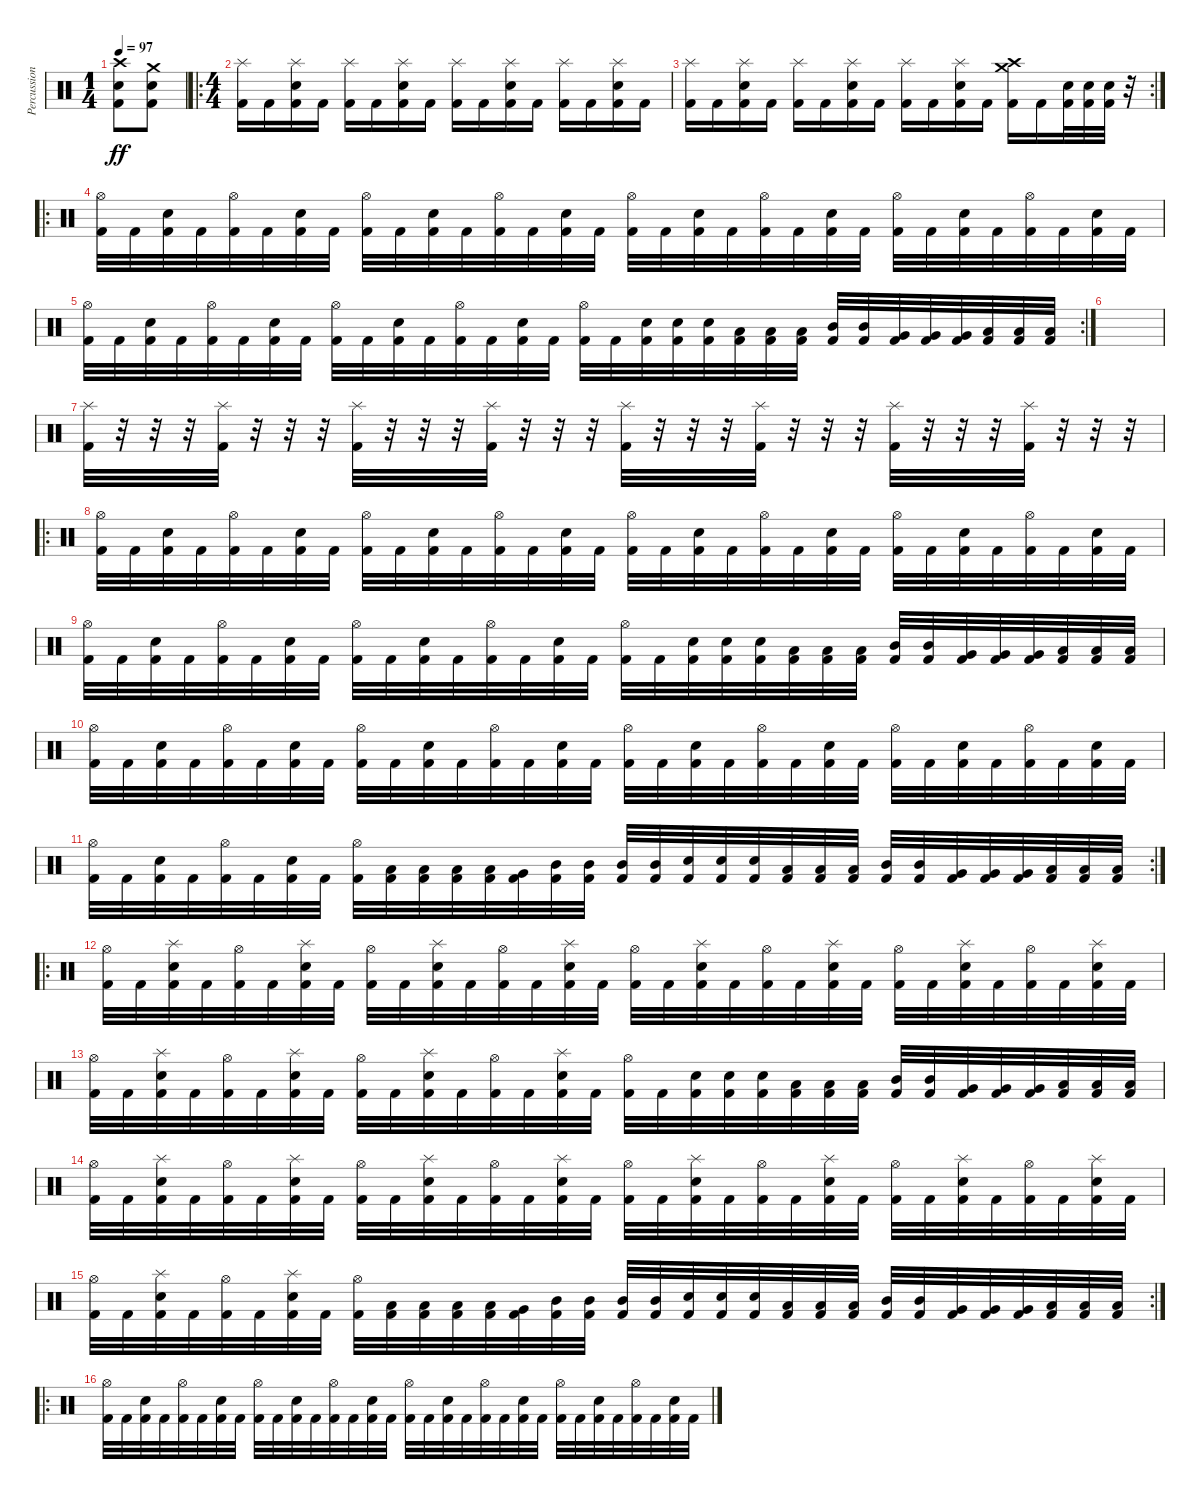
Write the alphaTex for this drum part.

\track ("Percussion" "Percussion") {instrument percussion}
\staff {score}
\articulation defaults
\ts (1 4)
\tempo 97
\clef neutral
\ks c
("Crash high (hit)" "Snare (hit) 2" "Kick (hit) 2").8{dy ff} ("Crash medium (hit)" "Snare (hit) 2" "Kick (hit) 2").8 |
\ro
\ts (4 4)
("Splash (hit)" "Kick (hit) 2").16 "Kick (hit) 2".16 ("Splash (hit)" "Snare (hit) 2" "Kick (hit) 2").16 "Kick (hit) 2".16 ("Splash (hit)" "Kick (hit) 2").16 "Kick (hit) 2".16 ("Splash (hit)" "Snare (hit) 2" "Kick (hit) 2").16 "Kick (hit) 2".16 ("Splash (hit)" "Kick (hit) 2").16 "Kick (hit) 2".16 ("Splash (hit)" "Snare (hit) 2" "Kick (hit) 2").16 "Kick (hit) 2".16 ("Splash (hit)" "Kick (hit) 2").16 "Kick (hit) 2".16 ("Splash (hit)" "Snare (hit) 2" "Kick (hit) 2").16 "Kick (hit) 2".16 |
\rc 2
("Splash (hit)" "Kick (hit) 2").16 "Kick (hit) 2".16 ("Splash (hit)" "Snare (hit) 2" "Kick (hit) 2").16 "Kick (hit) 2".16 ("Splash (hit)" "Kick (hit) 2").16 "Kick (hit) 2".16 ("Splash (hit)" "Snare (hit) 2" "Kick (hit) 2").16 "Kick (hit) 2".16 ("Splash (hit)" "Kick (hit) 2").16 "Kick (hit) 2".16 ("Splash (hit)" "Snare (hit) 2" "Kick (hit) 2").16 "Kick (hit) 2".16 ("Crash medium (hit)" "Crash high (hit)" "Kick (hit) 2").16 "Kick (hit) 2".16 ("Snare (hit) 2" "Kick (hit) 2").32 ("Snare (hit) 2" "Kick (hit) 2").32 ("Snare (hit) 2" "Kick (hit) 2").32 r.32 |
\ro
("Hi-Hat (open)" "Kick (hit) 2").32 "Kick (hit) 2".32 ("Snare (hit) 2" "Kick (hit) 2").32 "Kick (hit) 2".32 ("Hi-Hat (open)" "Kick (hit) 2").32 "Kick (hit) 2".32 ("Snare (hit) 2" "Kick (hit) 2").32 "Kick (hit) 2".32 ("Hi-Hat (open)" "Kick (hit) 2").32 "Kick (hit) 2".32 ("Snare (hit) 2" "Kick (hit) 2").32 "Kick (hit) 2".32 ("Hi-Hat (open)" "Kick (hit) 2").32 "Kick (hit) 2".32 ("Snare (hit) 2" "Kick (hit) 2").32 "Kick (hit) 2".32 ("Hi-Hat (open)" "Kick (hit) 2").32 "Kick (hit) 2".32 ("Snare (hit) 2" "Kick (hit) 2").32 "Kick (hit) 2".32 ("Hi-Hat (open)" "Kick (hit) 2").32 "Kick (hit) 2".32 ("Snare (hit) 2" "Kick (hit) 2").32 "Kick (hit) 2".32 ("Hi-Hat (open)" "Kick (hit) 2").32 "Kick (hit) 2".32 ("Snare (hit) 2" "Kick (hit) 2").32 "Kick (hit) 2".32 ("Hi-Hat (open)" "Kick (hit) 2").32 "Kick (hit) 2".32 ("Snare (hit) 2" "Kick (hit) 2").32 "Kick (hit) 2".32 |
\rc 2
("Hi-Hat (open)" "Kick (hit) 2").32 "Kick (hit) 2".32 ("Snare (hit) 2" "Kick (hit) 2").32 "Kick (hit) 2".32 ("Hi-Hat (open)" "Kick (hit) 2").32 "Kick (hit) 2".32 ("Snare (hit) 2" "Kick (hit) 2").32 "Kick (hit) 2".32 ("Hi-Hat (open)" "Kick (hit) 2").32 "Kick (hit) 2".32 ("Snare (hit) 2" "Kick (hit) 2").32 "Kick (hit) 2".32 ("Hi-Hat (open)" "Kick (hit) 2").32 "Kick (hit) 2".32 ("Snare (hit) 2" "Kick (hit) 2").32 "Kick (hit) 2".32 ("Hi-Hat (open)" "Kick (hit) 2").32 "Kick (hit) 2".32 ("Snare (hit) 2" "Kick (hit) 2").32 ("Snare (hit) 2" "Kick (hit) 2").32 ("Snare (hit) 2" "Kick (hit) 2").32 ("Low Tom (hit)" "Kick (hit) 2").32 ("Low Tom (hit)" "Kick (hit) 2").32 ("Low Tom (hit)" "Kick (hit) 2").32 ("Mid Tom (hit)" "Kick (hit) 2").32 ("Mid Tom (hit)" "Kick (hit) 2").32 ("Very Low Tom (hit)" "Kick (hit) 2").32 ("Very Low Tom (hit)" "Kick (hit) 2").32 ("Very Low Tom (hit)" "Kick (hit) 2").32 ("Low Floor Tom (hit)" "Kick (hit) 2").32 ("Low Floor Tom (hit)" "Kick (hit) 2").32 ("Low Floor Tom (hit)" "Kick (hit) 2").32 |
|
("Splash (hit)" "Kick (hit) 2").32 r.32 r.32 r.32 ("Splash (hit)" "Kick (hit) 2").32 r.32 r.32 r.32 ("Splash (hit)" "Kick (hit) 2").32 r.32 r.32 r.32 ("Splash (hit)" "Kick (hit) 2").32 r.32 r.32 r.32 ("Splash (hit)" "Kick (hit) 2").32 r.32 r.32 r.32 ("Splash (hit)" "Kick (hit) 2").32 r.32 r.32 r.32 ("Splash (hit)" "Kick (hit) 2").32 r.32 r.32 r.32 ("Splash (hit)" "Kick (hit) 2").32 r.32 r.32 r.32 |
\ro
("Hi-Hat (open)" "Kick (hit) 2").32 "Kick (hit) 2".32 ("Snare (hit) 2" "Kick (hit) 2").32 "Kick (hit) 2".32 ("Hi-Hat (open)" "Kick (hit) 2").32 "Kick (hit) 2".32 ("Snare (hit) 2" "Kick (hit) 2").32 "Kick (hit) 2".32 ("Hi-Hat (open)" "Kick (hit) 2").32 "Kick (hit) 2".32 ("Snare (hit) 2" "Kick (hit) 2").32 "Kick (hit) 2".32 ("Hi-Hat (open)" "Kick (hit) 2").32 "Kick (hit) 2".32 ("Snare (hit) 2" "Kick (hit) 2").32 "Kick (hit) 2".32 ("Hi-Hat (open)" "Kick (hit) 2").32 "Kick (hit) 2".32 ("Snare (hit) 2" "Kick (hit) 2").32 "Kick (hit) 2".32 ("Hi-Hat (open)" "Kick (hit) 2").32 "Kick (hit) 2".32 ("Snare (hit) 2" "Kick (hit) 2").32 "Kick (hit) 2".32 ("Hi-Hat (open)" "Kick (hit) 2").32 "Kick (hit) 2".32 ("Snare (hit) 2" "Kick (hit) 2").32 "Kick (hit) 2".32 ("Hi-Hat (open)" "Kick (hit) 2").32 "Kick (hit) 2".32 ("Snare (hit) 2" "Kick (hit) 2").32 "Kick (hit) 2".32 |
("Hi-Hat (open)" "Kick (hit) 2").32 "Kick (hit) 2".32 ("Snare (hit) 2" "Kick (hit) 2").32 "Kick (hit) 2".32 ("Hi-Hat (open)" "Kick (hit) 2").32 "Kick (hit) 2".32 ("Snare (hit) 2" "Kick (hit) 2").32 "Kick (hit) 2".32 ("Hi-Hat (open)" "Kick (hit) 2").32 "Kick (hit) 2".32 ("Snare (hit) 2" "Kick (hit) 2").32 "Kick (hit) 2".32 ("Hi-Hat (open)" "Kick (hit) 2").32 "Kick (hit) 2".32 ("Snare (hit) 2" "Kick (hit) 2").32 "Kick (hit) 2".32 ("Hi-Hat (open)" "Kick (hit) 2").32 "Kick (hit) 2".32 ("Snare (hit) 2" "Kick (hit) 2").32 ("Snare (hit) 2" "Kick (hit) 2").32 ("Snare (hit) 2" "Kick (hit) 2").32 ("Low Tom (hit)" "Kick (hit) 2").32 ("Low Tom (hit)" "Kick (hit) 2").32 ("Low Tom (hit)" "Kick (hit) 2").32 ("Mid Tom (hit)" "Kick (hit) 2").32 ("Mid Tom (hit)" "Kick (hit) 2").32 ("Very Low Tom (hit)" "Kick (hit) 2").32 ("Very Low Tom (hit)" "Kick (hit) 2").32 ("Very Low Tom (hit)" "Kick (hit) 2").32 ("Low Floor Tom (hit)" "Kick (hit) 2").32 ("Low Floor Tom (hit)" "Kick (hit) 2").32 ("Low Floor Tom (hit)" "Kick (hit) 2").32 |
("Hi-Hat (open)" "Kick (hit) 2").32 "Kick (hit) 2".32 ("Snare (hit) 2" "Kick (hit) 2").32 "Kick (hit) 2".32 ("Hi-Hat (open)" "Kick (hit) 2").32 "Kick (hit) 2".32 ("Snare (hit) 2" "Kick (hit) 2").32 "Kick (hit) 2".32 ("Hi-Hat (open)" "Kick (hit) 2").32 "Kick (hit) 2".32 ("Snare (hit) 2" "Kick (hit) 2").32 "Kick (hit) 2".32 ("Hi-Hat (open)" "Kick (hit) 2").32 "Kick (hit) 2".32 ("Snare (hit) 2" "Kick (hit) 2").32 "Kick (hit) 2".32 ("Hi-Hat (open)" "Kick (hit) 2").32 "Kick (hit) 2".32 ("Snare (hit) 2" "Kick (hit) 2").32 "Kick (hit) 2".32 ("Hi-Hat (open)" "Kick (hit) 2").32 "Kick (hit) 2".32 ("Snare (hit) 2" "Kick (hit) 2").32 "Kick (hit) 2".32 ("Hi-Hat (open)" "Kick (hit) 2").32 "Kick (hit) 2".32 ("Snare (hit) 2" "Kick (hit) 2").32 "Kick (hit) 2".32 ("Hi-Hat (open)" "Kick (hit) 2").32 "Kick (hit) 2".32 ("Snare (hit) 2" "Kick (hit) 2").32 "Kick (hit) 2".32 |
\rc 2
("Hi-Hat (open)" "Kick (hit) 2").32 "Kick (hit) 2".32 ("Snare (hit) 2" "Kick (hit) 2").32 "Kick (hit) 2".32 ("Hi-Hat (open)" "Kick (hit) 2").32 "Kick (hit) 2".32 ("Snare (hit) 2" "Kick (hit) 2").32 "Kick (hit) 2".32 ("Hi-Hat (open)" "Kick (hit) 2").32 ("Low Tom (hit)" "Kick (hit) 2").32 ("Low Floor Tom (hit)" "Kick (hit) 2").32 ("Low Floor Tom (hit)" "Kick (hit) 2").32 ("Low Floor Tom (hit)" "Kick (hit) 2").32 ("Very Low Tom (hit)" "Kick (hit) 2").32 ("Mid Tom (hit)" "Kick (hit) 2").32 ("Mid Tom (hit)" "Kick (hit) 2").32 ("Mid Tom (hit)" "Kick (hit) 2").32 ("Mid Tom (hit)" "Kick (hit) 2").32 ("Snare (hit) 2" "Kick (hit) 2").32 ("Snare (hit) 2" "Kick (hit) 2").32 ("Snare (hit) 2" "Kick (hit) 2").32 ("Low Tom (hit)" "Kick (hit) 2").32 ("Low Tom (hit)" "Kick (hit) 2").32 ("Low Tom (hit)" "Kick (hit) 2").32 ("Mid Tom (hit)" "Kick (hit) 2").32 ("Mid Tom (hit)" "Kick (hit) 2").32 ("Very Low Tom (hit)" "Kick (hit) 2").32 ("Very Low Tom (hit)" "Kick (hit) 2").32 ("Very Low Tom (hit)" "Kick (hit) 2").32 ("Low Floor Tom (hit)" "Kick (hit) 2").32 ("Low Floor Tom (hit)" "Kick (hit) 2").32 ("Low Floor Tom (hit)" "Kick (hit) 2").32 |
\ro
("Hi-Hat (open)" "Kick (hit) 2").32 "Kick (hit) 2".32 ("Splash (hit)" "Snare (hit) 2" "Kick (hit) 2").32 "Kick (hit) 2".32 ("Hi-Hat (open)" "Kick (hit) 2").32 "Kick (hit) 2".32 ("Splash (hit)" "Snare (hit) 2" "Kick (hit) 2").32 "Kick (hit) 2".32 ("Hi-Hat (open)" "Kick (hit) 2").32 "Kick (hit) 2".32 ("Splash (hit)" "Snare (hit) 2" "Kick (hit) 2").32 "Kick (hit) 2".32 ("Hi-Hat (open)" "Kick (hit) 2").32 "Kick (hit) 2".32 ("Splash (hit)" "Snare (hit) 2" "Kick (hit) 2").32 "Kick (hit) 2".32 ("Hi-Hat (open)" "Kick (hit) 2").32 "Kick (hit) 2".32 ("Splash (hit)" "Snare (hit) 2" "Kick (hit) 2").32 "Kick (hit) 2".32 ("Hi-Hat (open)" "Kick (hit) 2").32 "Kick (hit) 2".32 ("Splash (hit)" "Snare (hit) 2" "Kick (hit) 2").32 "Kick (hit) 2".32 ("Hi-Hat (open)" "Kick (hit) 2").32 "Kick (hit) 2".32 ("Splash (hit)" "Snare (hit) 2" "Kick (hit) 2").32 "Kick (hit) 2".32 ("Hi-Hat (open)" "Kick (hit) 2").32 "Kick (hit) 2".32 ("Splash (hit)" "Snare (hit) 2" "Kick (hit) 2").32 "Kick (hit) 2".32 |
("Hi-Hat (open)" "Kick (hit) 2").32 "Kick (hit) 2".32 ("Splash (hit)" "Snare (hit) 2" "Kick (hit) 2").32 "Kick (hit) 2".32 ("Hi-Hat (open)" "Kick (hit) 2").32 "Kick (hit) 2".32 ("Splash (hit)" "Snare (hit) 2" "Kick (hit) 2").32 "Kick (hit) 2".32 ("Hi-Hat (open)" "Kick (hit) 2").32 "Kick (hit) 2".32 ("Splash (hit)" "Snare (hit) 2" "Kick (hit) 2").32 "Kick (hit) 2".32 ("Hi-Hat (open)" "Kick (hit) 2").32 "Kick (hit) 2".32 ("Splash (hit)" "Snare (hit) 2" "Kick (hit) 2").32 "Kick (hit) 2".32 ("Hi-Hat (open)" "Kick (hit) 2").32 "Kick (hit) 2".32 ("Snare (hit) 2" "Kick (hit) 2").32 ("Snare (hit) 2" "Kick (hit) 2").32 ("Snare (hit) 2" "Kick (hit) 2").32 ("Low Tom (hit)" "Kick (hit) 2").32 ("Low Tom (hit)" "Kick (hit) 2").32 ("Low Tom (hit)" "Kick (hit) 2").32 ("Mid Tom (hit)" "Kick (hit) 2").32 ("Mid Tom (hit)" "Kick (hit) 2").32 ("Very Low Tom (hit)" "Kick (hit) 2").32 ("Very Low Tom (hit)" "Kick (hit) 2").32 ("Very Low Tom (hit)" "Kick (hit) 2").32 ("Low Floor Tom (hit)" "Kick (hit) 2").32 ("Low Floor Tom (hit)" "Kick (hit) 2").32 ("Low Floor Tom (hit)" "Kick (hit) 2").32 |
("Hi-Hat (open)" "Kick (hit) 2").32 "Kick (hit) 2".32 ("Splash (hit)" "Snare (hit) 2" "Kick (hit) 2").32 "Kick (hit) 2".32 ("Hi-Hat (open)" "Kick (hit) 2").32 "Kick (hit) 2".32 ("Splash (hit)" "Snare (hit) 2" "Kick (hit) 2").32 "Kick (hit) 2".32 ("Hi-Hat (open)" "Kick (hit) 2").32 "Kick (hit) 2".32 ("Splash (hit)" "Snare (hit) 2" "Kick (hit) 2").32 "Kick (hit) 2".32 ("Hi-Hat (open)" "Kick (hit) 2").32 "Kick (hit) 2".32 ("Splash (hit)" "Snare (hit) 2" "Kick (hit) 2").32 "Kick (hit) 2".32 ("Hi-Hat (open)" "Kick (hit) 2").32 "Kick (hit) 2".32 ("Splash (hit)" "Snare (hit) 2" "Kick (hit) 2").32 "Kick (hit) 2".32 ("Hi-Hat (open)" "Kick (hit) 2").32 "Kick (hit) 2".32 ("Splash (hit)" "Snare (hit) 2" "Kick (hit) 2").32 "Kick (hit) 2".32 ("Hi-Hat (open)" "Kick (hit) 2").32 "Kick (hit) 2".32 ("Splash (hit)" "Snare (hit) 2" "Kick (hit) 2").32 "Kick (hit) 2".32 ("Hi-Hat (open)" "Kick (hit) 2").32 "Kick (hit) 2".32 ("Splash (hit)" "Snare (hit) 2" "Kick (hit) 2").32 "Kick (hit) 2".32 |
\rc 2
("Hi-Hat (open)" "Kick (hit) 2").32 "Kick (hit) 2".32 ("Splash (hit)" "Snare (hit) 2" "Kick (hit) 2").32 "Kick (hit) 2".32 ("Hi-Hat (open)" "Kick (hit) 2").32 "Kick (hit) 2".32 ("Splash (hit)" "Snare (hit) 2" "Kick (hit) 2").32 "Kick (hit) 2".32 ("Hi-Hat (open)" "Kick (hit) 2").32 ("Low Tom (hit)" "Kick (hit) 2").32 ("Low Floor Tom (hit)" "Kick (hit) 2").32 ("Low Floor Tom (hit)" "Kick (hit) 2").32 ("Low Floor Tom (hit)" "Kick (hit) 2").32 ("Very Low Tom (hit)" "Kick (hit) 2").32 ("Mid Tom (hit)" "Kick (hit) 2").32 ("Mid Tom (hit)" "Kick (hit) 2").32 ("Mid Tom (hit)" "Kick (hit) 2").32 ("Mid Tom (hit)" "Kick (hit) 2").32 ("Snare (hit) 2" "Kick (hit) 2").32 ("Snare (hit) 2" "Kick (hit) 2").32 ("Snare (hit) 2" "Kick (hit) 2").32 ("Low Tom (hit)" "Kick (hit) 2").32 ("Low Tom (hit)" "Kick (hit) 2").32 ("Low Tom (hit)" "Kick (hit) 2").32 ("Mid Tom (hit)" "Kick (hit) 2").32 ("Mid Tom (hit)" "Kick (hit) 2").32 ("Very Low Tom (hit)" "Kick (hit) 2").32 ("Very Low Tom (hit)" "Kick (hit) 2").32 ("Very Low Tom (hit)" "Kick (hit) 2").32 ("Low Floor Tom (hit)" "Kick (hit) 2").32 ("Low Floor Tom (hit)" "Kick (hit) 2").32 ("Low Floor Tom (hit)" "Kick (hit) 2").32 |
\ro
("Hi-Hat (open)" "Kick (hit) 2").32 "Kick (hit) 2".32 ("Snare (hit) 2" "Kick (hit) 2").32 "Kick (hit) 2".32 ("Hi-Hat (open)" "Kick (hit) 2").32 "Kick (hit) 2".32 ("Snare (hit) 2" "Kick (hit) 2").32 "Kick (hit) 2".32 ("Hi-Hat (open)" "Kick (hit) 2").32 "Kick (hit) 2".32 ("Snare (hit) 2" "Kick (hit) 2").32 "Kick (hit) 2".32 ("Hi-Hat (open)" "Kick (hit) 2").32 "Kick (hit) 2".32 ("Snare (hit) 2" "Kick (hit) 2").32 "Kick (hit) 2".32 ("Hi-Hat (open)" "Kick (hit) 2").32 "Kick (hit) 2".32 ("Snare (hit) 2" "Kick (hit) 2").32 "Kick (hit) 2".32 ("Hi-Hat (open)" "Kick (hit) 2").32 "Kick (hit) 2".32 ("Snare (hit) 2" "Kick (hit) 2").32 "Kick (hit) 2".32 ("Hi-Hat (open)" "Kick (hit) 2").32 "Kick (hit) 2".32 ("Snare (hit) 2" "Kick (hit) 2").32 "Kick (hit) 2".32 ("Hi-Hat (open)" "Kick (hit) 2").32 "Kick (hit) 2".32 ("Snare (hit) 2" "Kick (hit) 2").32 "Kick (hit) 2".32
